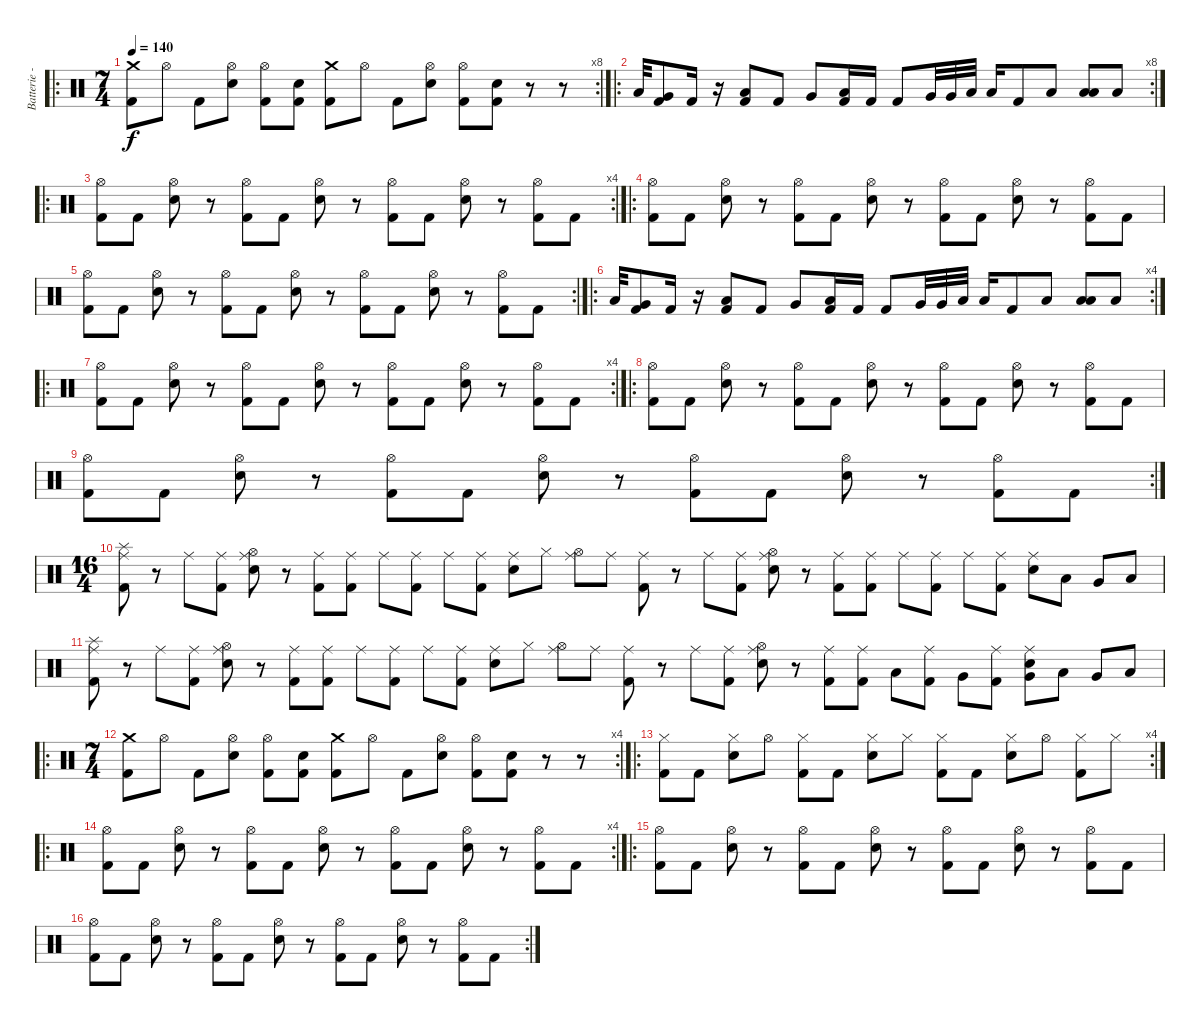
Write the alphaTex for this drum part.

\track ("Batterie - " "Batterie -") {instrument percussion}
\staff {score}
\articulation defaults
\ro
\rc 8
\ts (7 4)
\tempo 140
\clef neutral
\ks c
("Kick (hit) 2" "Crash medium (hit)").8{dy f} "Hi-Hat (open)".8 "Kick (hit) 2".8 ("Electric Snare (hit)" "Hi-Hat (open)").8 ("Kick (hit) 2" "Hi-Hat (open)").8 ("Electric Snare (hit)" "Kick (hit) 2").8 ("Kick (hit) 2" "Crash medium (hit)").8 "Hi-Hat (open)".8 "Kick (hit) 2".8 ("Hi-Hat (open)" "Electric Snare (hit)").8 ("Kick (hit) 2" "Hi-Hat (open)").8 ("Kick (hit) 2" "Electric Snare (hit)").8 r.8 r.8 |
\ro
\rc 8 "Low Tom (hit)".32
("Kick (hit) 2" "Very Low Tom (hit)").8 "Kick (hit) 2".16 r.16 ("Low Tom (hit)" "Kick (hit) 2").8 "Kick (hit) 2".8 "Very Low Tom (hit)".8 ("Kick (hit) 2" "Low Floor Tom (hit)").16 "Kick (hit) 2".16 "Kick (hit) 2".8 "Very Low Tom (hit)".32 "Very Low Tom (hit)".32 "Low Tom (hit)".32 "Low Tom (hit)".16 "Kick (hit) 2".8 "Low Tom (hit)".8 ("Low Floor Tom (hit)" "Low Tom (hit)").8 "Low Floor Tom (hit)".8 |
\ro
\rc 4
("Kick (hit) 2" "Hi-Hat (open)").8 "Kick (hit) 2".8 ("Electric Snare (hit)" "Hi-Hat (open)").8 r.8 ("Kick (hit) 2" "Hi-Hat (open)").8 "Kick (hit) 2".8 ("Electric Snare (hit)" "Hi-Hat (open)").8 r.8 ("Kick (hit) 2" "Hi-Hat (open)").8 "Kick (hit) 2".8 ("Electric Snare (hit)" "Hi-Hat (open)").8 r.8 ("Kick (hit) 2" "Hi-Hat (open)").8 "Kick (hit) 2".8 |
\ro
("Kick (hit) 2" "Hi-Hat (open)").8 "Kick (hit) 2".8 ("Electric Snare (hit)" "Hi-Hat (open)").8 r.8 ("Kick (hit) 2" "Hi-Hat (open)").8 "Kick (hit) 2".8 ("Electric Snare (hit)" "Hi-Hat (open)").8 r.8 ("Kick (hit) 2" "Hi-Hat (open)").8 "Kick (hit) 2".8 ("Electric Snare (hit)" "Hi-Hat (open)").8 r.8 ("Kick (hit) 2" "Hi-Hat (open)").8 "Kick (hit) 2".8 |
\rc 2
("Kick (hit) 2" "Hi-Hat (open)").8 "Kick (hit) 2".8 ("Electric Snare (hit)" "Hi-Hat (open)").8 r.8 ("Kick (hit) 2" "Hi-Hat (open)").8 "Kick (hit) 2".8 ("Electric Snare (hit)" "Hi-Hat (open)").8 r.8 ("Kick (hit) 2" "Hi-Hat (open)").8 "Kick (hit) 2".8 ("Electric Snare (hit)" "Hi-Hat (open)").8 r.8 ("Kick (hit) 2" "Hi-Hat (open)").8 "Kick (hit) 2".8 |
\ro
\rc 4 "Low Tom (hit)".32
("Kick (hit) 2" "Very Low Tom (hit)").8 "Kick (hit) 2".16 r.16 ("Low Tom (hit)" "Kick (hit) 2").8 "Kick (hit) 2".8 "Very Low Tom (hit)".8 ("Kick (hit) 2" "Low Floor Tom (hit)").16 "Kick (hit) 2".16 "Kick (hit) 2".8 "Very Low Tom (hit)".32 "Very Low Tom (hit)".32 "Low Tom (hit)".32 "Low Tom (hit)".16 "Kick (hit) 2".8 "Low Tom (hit)".8 ("Low Floor Tom (hit)" "Low Tom (hit)").8 "Low Floor Tom (hit)".8 |
\ro
\rc 4
("Kick (hit) 2" "Hi-Hat (open)").8 "Kick (hit) 2".8 ("Electric Snare (hit)" "Hi-Hat (open)").8 r.8 ("Kick (hit) 2" "Hi-Hat (open)").8 "Kick (hit) 2".8 ("Electric Snare (hit)" "Hi-Hat (open)").8 r.8 ("Kick (hit) 2" "Hi-Hat (open)").8 "Kick (hit) 2".8 ("Electric Snare (hit)" "Hi-Hat (open)").8 r.8 ("Kick (hit) 2" "Hi-Hat (open)").8 "Kick (hit) 2".8 |
\ro
("Kick (hit) 2" "Hi-Hat (open)").8 "Kick (hit) 2".8 ("Electric Snare (hit)" "Hi-Hat (open)").8 r.8 ("Kick (hit) 2" "Hi-Hat (open)").8 "Kick (hit) 2".8 ("Electric Snare (hit)" "Hi-Hat (open)").8 r.8 ("Kick (hit) 2" "Hi-Hat (open)").8 "Kick (hit) 2".8 ("Electric Snare (hit)" "Hi-Hat (open)").8 r.8 ("Kick (hit) 2" "Hi-Hat (open)").8 "Kick (hit) 2".8 |
\rc 2
("Kick (hit) 2" "Hi-Hat (open)").8 "Kick (hit) 2".8 ("Electric Snare (hit)" "Hi-Hat (open)").8 r.8 ("Kick (hit) 2" "Hi-Hat (open)").8 "Kick (hit) 2".8 ("Electric Snare (hit)" "Hi-Hat (open)").8 r.8 ("Kick (hit) 2" "Hi-Hat (open)").8 "Kick (hit) 2".8 ("Electric Snare (hit)" "Hi-Hat (open)").8 r.8 ("Kick (hit) 2" "Hi-Hat (open)").8 "Kick (hit) 2".8 |
\ts (16 4)
("Splash (hit)" "Kick (hit) 2" "Ride (middle)").8 r.8 "Ride (middle)".8 ("Kick (hit) 2" "Ride (middle)").8 ("Hi-Hat (open)" "Electric Snare (hit)" "Ride (middle)").8 r.8 ("Kick (hit) 2" "Ride (middle)").8 ("Ride (middle)" "Kick (hit) 2").8 "Ride (middle)".8 ("Kick (hit) 2" "Ride (middle)").8 "Ride (middle)".8 ("Kick (hit) 2" "Ride (middle)").8 ("Electric Snare (hit)" "Ride (middle)").8 "Hi-Hat (closed)".8 ("Hi-Hat (open)" "Ride (middle)").8 "Ride (middle)".8 ("Kick (hit) 2" "Ride (middle)").8 r.8 "Ride (middle)".8 ("Kick (hit) 2" "Ride (middle)").8 ("Hi-Hat (open)" "Electric Snare (hit)" "Ride (middle)").8 r.8 ("Kick (hit) 2" "Ride (middle)").8 ("Kick (hit) 2" "Ride (middle)").8 "Ride (middle)".8 ("Kick (hit) 2" "Ride (middle)").8 "Ride (middle)".8 ("Kick (hit) 2" "Ride (middle)").8 ("Electric Snare (hit)" "Ride (middle)").8 "Low Tom (hit)".8 "Very Low Tom (hit)".8 "Low Floor Tom (hit)".8 |
("Splash (hit)" "Kick (hit) 2" "Ride (middle)").8 r.8 "Ride (middle)".8 ("Kick (hit) 2" "Ride (middle)").8 ("Hi-Hat (open)" "Electric Snare (hit)" "Ride (middle)").8 r.8 ("Kick (hit) 2" "Ride (middle)").8 ("Ride (middle)" "Kick (hit) 2").8 "Ride (middle)".8 ("Kick (hit) 2" "Ride (middle)").8 "Ride (middle)".8 ("Kick (hit) 2" "Ride (middle)").8 ("Electric Snare (hit)" "Ride (middle)").8 "Hi-Hat (closed)".8 ("Hi-Hat (open)" "Ride (middle)").8 "Ride (middle)".8 ("Kick (hit) 2" "Ride (middle)").8 r.8 "Ride (middle)".8 ("Kick (hit) 2" "Ride (middle)").8 ("Hi-Hat (open)" "Electric Snare (hit)" "Ride (middle)").8 r.8 ("Kick (hit) 2" "Ride (middle)").8 ("Kick (hit) 2" "Ride (middle)").8 "Low Tom (hit)".8 ("Kick (hit) 2" "Ride (middle)").8 "Very Low Tom (hit)".8 ("Kick (hit) 2" "Ride (middle)").8 ("Very Low Tom (hit)" "Electric Snare (hit)" "Ride (middle)").8 "Low Tom (hit)".8 "Very Low Tom (hit)".8 "Low Floor Tom (hit)".8 |
\ro
\rc 4
\ts (7 4)
("Kick (hit) 2" "Crash medium (hit)").8 "Hi-Hat (open)".8 "Kick (hit) 2".8 ("Electric Snare (hit)" "Hi-Hat (open)").8 ("Kick (hit) 2" "Hi-Hat (open)").8 ("Electric Snare (hit)" "Kick (hit) 2").8 ("Kick (hit) 2" "Crash medium (hit)").8 "Hi-Hat (open)".8 "Kick (hit) 2".8 ("Hi-Hat (open)" "Electric Snare (hit)").8 ("Kick (hit) 2" "Hi-Hat (open)").8 ("Kick (hit) 2" "Electric Snare (hit)").8 r.8 r.8 |
\ro
\rc 4
("Kick (hit) 2" "Hi-Hat (closed)").8 "Kick (hit) 2".8 ("Electric Snare (hit)" "Hi-Hat (closed)").8 "Hi-Hat (open)".8 ("Kick (hit) 2" "Hi-Hat (closed)").8 "Kick (hit) 2".8 ("Electric Snare (hit)" "Hi-Hat (closed)").8 "Hi-Hat (closed)".8 ("Kick (hit) 2" "Hi-Hat (closed)").8 "Kick (hit) 2".8 ("Electric Snare (hit)" "Hi-Hat (closed)").8 "Hi-Hat (open)".8 ("Kick (hit) 2" "Hi-Hat (closed)").8 "Hi-Hat (closed)".8 |
\ro
\rc 4
("Kick (hit) 2" "Hi-Hat (open)").8 "Kick (hit) 2".8 ("Electric Snare (hit)" "Hi-Hat (open)").8 r.8 ("Kick (hit) 2" "Hi-Hat (open)").8 "Kick (hit) 2".8 ("Electric Snare (hit)" "Hi-Hat (open)").8 r.8 ("Kick (hit) 2" "Hi-Hat (open)").8 "Kick (hit) 2".8 ("Electric Snare (hit)" "Hi-Hat (open)").8 r.8 ("Kick (hit) 2" "Hi-Hat (open)").8 "Kick (hit) 2".8 |
\ro
("Kick (hit) 2" "Hi-Hat (open)").8 "Kick (hit) 2".8 ("Electric Snare (hit)" "Hi-Hat (open)").8 r.8 ("Kick (hit) 2" "Hi-Hat (open)").8 "Kick (hit) 2".8 ("Electric Snare (hit)" "Hi-Hat (open)").8 r.8 ("Kick (hit) 2" "Hi-Hat (open)").8 "Kick (hit) 2".8 ("Electric Snare (hit)" "Hi-Hat (open)").8 r.8 ("Kick (hit) 2" "Hi-Hat (open)").8 "Kick (hit) 2".8 |
\rc 2
("Kick (hit) 2" "Hi-Hat (open)").8 "Kick (hit) 2".8 ("Electric Snare (hit)" "Hi-Hat (open)").8 r.8 ("Kick (hit) 2" "Hi-Hat (open)").8 "Kick (hit) 2".8 ("Electric Snare (hit)" "Hi-Hat (open)").8 r.8 ("Kick (hit) 2" "Hi-Hat (open)").8 "Kick (hit) 2".8 ("Electric Snare (hit)" "Hi-Hat (open)").8 r.8 ("Kick (hit) 2" "Hi-Hat (open)").8 "Kick (hit) 2".8
